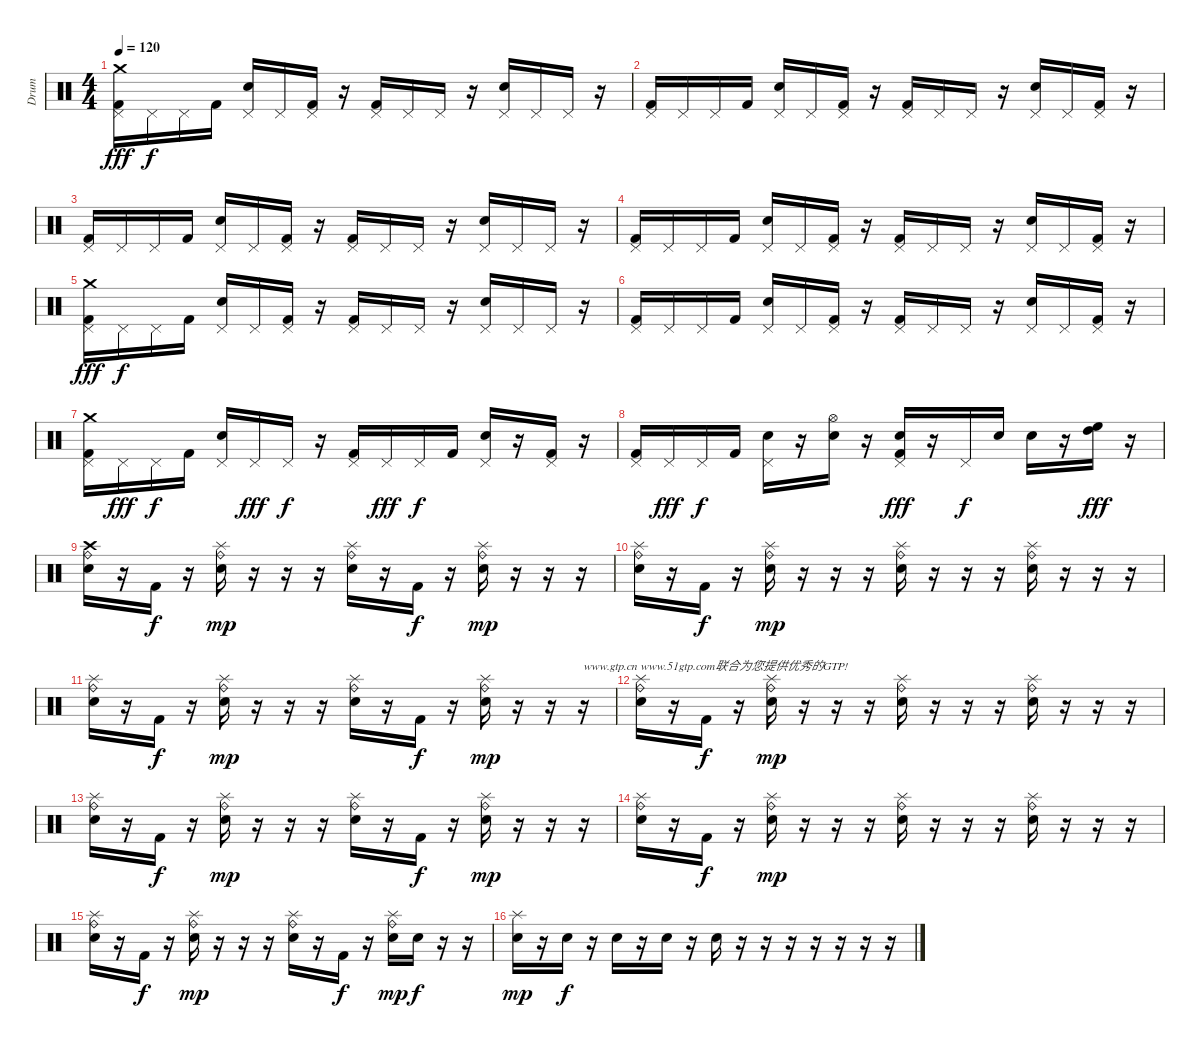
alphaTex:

\track ("Drum" "Drum") {instrument percussion}
\staff {score}
\articulation defaults
\ts (4 4)
\tempo 120
\clef neutral
\ks c
("Crash medium (hit)" "Pedal Hi-Hat (hit)" "Kick (hit) 2").16{dy fff} "Pedal Hi-Hat (hit)".16{dy f} "Pedal Hi-Hat (hit)".16 "Kick (hit) 2".16 ("Pedal Hi-Hat (hit)" "Snare (hit) 2").16 "Pedal Hi-Hat (hit)".16 ("Pedal Hi-Hat (hit)" "Kick (hit) 2").16 r.16 ("Pedal Hi-Hat (hit)" "Kick (hit) 2").16 "Pedal Hi-Hat (hit)".16 "Pedal Hi-Hat (hit)".16 r.16 ("Pedal Hi-Hat (hit)" "Snare (hit) 2").16 "Pedal Hi-Hat (hit)".16 "Pedal Hi-Hat (hit)".16 r.16 |
("Pedal Hi-Hat (hit)" "Kick (hit) 2").16 "Pedal Hi-Hat (hit)".16 "Pedal Hi-Hat (hit)".16 "Kick (hit) 2".16 ("Pedal Hi-Hat (hit)" "Snare (hit) 2").16 "Pedal Hi-Hat (hit)".16 ("Pedal Hi-Hat (hit)" "Kick (hit) 2").16 r.16 ("Pedal Hi-Hat (hit)" "Kick (hit) 2").16 "Pedal Hi-Hat (hit)".16 "Pedal Hi-Hat (hit)".16 r.16 ("Pedal Hi-Hat (hit)" "Snare (hit) 2").16 "Pedal Hi-Hat (hit)".16 ("Pedal Hi-Hat (hit)" "Kick (hit) 2").16 r.16 |
("Pedal Hi-Hat (hit)" "Kick (hit) 2").16 "Pedal Hi-Hat (hit)".16 "Pedal Hi-Hat (hit)".16 "Kick (hit) 2".16 ("Pedal Hi-Hat (hit)" "Snare (hit) 2").16 "Pedal Hi-Hat (hit)".16 ("Pedal Hi-Hat (hit)" "Kick (hit) 2").16 r.16 ("Pedal Hi-Hat (hit)" "Kick (hit) 2").16 "Pedal Hi-Hat (hit)".16 "Pedal Hi-Hat (hit)".16 r.16 ("Pedal Hi-Hat (hit)" "Snare (hit) 2").16 "Pedal Hi-Hat (hit)".16 "Pedal Hi-Hat (hit)".16 r.16 |
("Pedal Hi-Hat (hit)" "Kick (hit) 2").16 "Pedal Hi-Hat (hit)".16 "Pedal Hi-Hat (hit)".16 "Kick (hit) 2".16 ("Pedal Hi-Hat (hit)" "Snare (hit) 2").16 "Pedal Hi-Hat (hit)".16 ("Pedal Hi-Hat (hit)" "Kick (hit) 2").16 r.16 ("Pedal Hi-Hat (hit)" "Kick (hit) 2").16 "Pedal Hi-Hat (hit)".16 "Pedal Hi-Hat (hit)".16 r.16 ("Pedal Hi-Hat (hit)" "Snare (hit) 2").16 "Pedal Hi-Hat (hit)".16 ("Pedal Hi-Hat (hit)" "Kick (hit) 2").16 r.16 |
("Crash medium (hit)" "Pedal Hi-Hat (hit)" "Kick (hit) 2").16{dy fff} "Pedal Hi-Hat (hit)".16{dy f} "Pedal Hi-Hat (hit)".16 "Kick (hit) 2".16 ("Pedal Hi-Hat (hit)" "Snare (hit) 2").16 "Pedal Hi-Hat (hit)".16 ("Pedal Hi-Hat (hit)" "Kick (hit) 2").16 r.16 ("Pedal Hi-Hat (hit)" "Kick (hit) 2").16 "Pedal Hi-Hat (hit)".16 "Pedal Hi-Hat (hit)".16 r.16 ("Pedal Hi-Hat (hit)" "Snare (hit) 2").16 "Pedal Hi-Hat (hit)".16 "Pedal Hi-Hat (hit)".16 r.16 |
("Pedal Hi-Hat (hit)" "Kick (hit) 2").16 "Pedal Hi-Hat (hit)".16 "Pedal Hi-Hat (hit)".16 "Kick (hit) 2".16 ("Pedal Hi-Hat (hit)" "Snare (hit) 2").16 "Pedal Hi-Hat (hit)".16 ("Pedal Hi-Hat (hit)" "Kick (hit) 2").16 r.16 ("Pedal Hi-Hat (hit)" "Kick (hit) 2").16 "Pedal Hi-Hat (hit)".16 "Pedal Hi-Hat (hit)".16 r.16 ("Pedal Hi-Hat (hit)" "Snare (hit) 2").16 "Pedal Hi-Hat (hit)".16 ("Pedal Hi-Hat (hit)" "Kick (hit) 2").16 r.16 |
("Crash medium (hit)" "Pedal Hi-Hat (hit)" "Kick (hit) 2").16 "Pedal Hi-Hat (hit)".16{dy fff} "Pedal Hi-Hat (hit)".16{dy f} "Kick (hit) 2".16 ("Pedal Hi-Hat (hit)" "Snare (hit) 2").16 "Pedal Hi-Hat (hit)".16{dy fff} "Pedal Hi-Hat (hit)".16{dy f} r.16 ("Pedal Hi-Hat (hit)" "Kick (hit) 2").16 "Pedal Hi-Hat (hit)".16{dy fff} "Pedal Hi-Hat (hit)".16{dy f} "Kick (hit) 2".16 ("Pedal Hi-Hat (hit)" "Snare (hit) 2").16 r.16 ("Pedal Hi-Hat (hit)" "Kick (hit) 2").16 r.16 |
("Pedal Hi-Hat (hit)" "Kick (hit) 2").16 "Pedal Hi-Hat (hit)".16{dy fff} "Pedal Hi-Hat (hit)".16{dy f} "Kick (hit) 2".16 ("Pedal Hi-Hat (hit)" "Snare (hit) 2").16 r.16 ("Hi-Hat (open)" "Snare (hit) 2").16 r.16 ("Pedal Hi-Hat (hit)" "Snare (hit) 2" "Kick (hit) 2").16{dy fff} r.16 "Pedal Hi-Hat (hit)".16{dy f} "Snare (hit) 2".16 "Snare (hit) 2".16 r.16 ("High Floor Tom (hit)" "High Tom (hit)").16{dy fff} r.16 |
("Crash high (hit)" "Ride (bell)" "Snare (hit) 2").16 r.16 "Kick (hit) 2".16{dy f} r.16 ("Ride (bell)" "Splash (hit)" "Snare (hit) 2").16{dy mp} r.16 r.16 r.16 ("Ride (bell)" "Splash (hit)" "Snare (hit) 2").16 r.16 "Kick (hit) 2".16{dy f} r.16 ("Ride (bell)" "Splash (hit)" "Snare (hit) 2").16{dy mp} r.16 r.16 r.16 |
("Ride (bell)" "Splash (hit)" "Snare (hit) 2").16 r.16 "Kick (hit) 2".16{dy f} r.16 ("Ride (bell)" "Splash (hit)" "Snare (hit) 2").16{dy mp} r.16 r.16 r.16 ("Ride (bell)" "Splash (hit)" "Snare (hit) 2").16 r.16 r.16 r.16 ("Ride (bell)" "Splash (hit)" "Snare (hit) 2").16 r.16 r.16 r.16 |
("Ride (bell)" "Splash (hit)" "Snare (hit) 2").16 r.16 "Kick (hit) 2".16{dy f} r.16 ("Ride (bell)" "Splash (hit)" "Snare (hit) 2").16{dy mp} r.16 r.16 r.16 ("Ride (bell)" "Splash (hit)" "Snare (hit) 2").16 r.16 "Kick (hit) 2".16{dy f} r.16 ("Ride (bell)" "Splash (hit)" "Snare (hit) 2").16{dy mp} r.16 r.16 r.16{txt "www.gtp.cn www.51gtp.com联合为您提供优秀的GTP!"} |
("Ride (bell)" "Splash (hit)" "Snare (hit) 2").16 r.16 "Kick (hit) 2".16{dy f} r.16 ("Ride (bell)" "Splash (hit)" "Snare (hit) 2").16{dy mp} r.16 r.16 r.16 ("Ride (bell)" "Splash (hit)" "Snare (hit) 2").16 r.16 r.16 r.16 ("Ride (bell)" "Splash (hit)" "Snare (hit) 2").16 r.16 r.16 r.16 |
("Ride (bell)" "Splash (hit)" "Snare (hit) 2").16 r.16 "Kick (hit) 2".16{dy f} r.16 ("Ride (bell)" "Splash (hit)" "Snare (hit) 2").16{dy mp} r.16 r.16 r.16 ("Ride (bell)" "Splash (hit)" "Snare (hit) 2").16 r.16 "Kick (hit) 2".16{dy f} r.16 ("Ride (bell)" "Splash (hit)" "Snare (hit) 2").16{dy mp} r.16 r.16 r.16 |
("Ride (bell)" "Splash (hit)" "Snare (hit) 2").16 r.16 "Kick (hit) 2".16{dy f} r.16 ("Ride (bell)" "Splash (hit)" "Snare (hit) 2").16{dy mp} r.16 r.16 r.16 ("Ride (bell)" "Splash (hit)" "Snare (hit) 2").16 r.16 r.16 r.16 ("Ride (bell)" "Splash (hit)" "Snare (hit) 2").16 r.16 r.16 r.16 |
("Ride (bell)" "Splash (hit)" "Snare (hit) 2").16 r.16 "Kick (hit) 2".16{dy f} r.16 ("Ride (bell)" "Splash (hit)" "Snare (hit) 2").16{dy mp} r.16 r.16 r.16 ("Ride (bell)" "Splash (hit)" "Snare (hit) 2").16 r.16 "Kick (hit) 2".16{dy f} r.16 ("Ride (bell)" "Splash (hit)" "Snare (hit) 2").16{dy mp} "Snare (hit) 2".16{dy f} r.16 r.16 |
("Splash (hit)" "Snare (hit) 2").16{dy mp} r.16 "Snare (hit) 2".16{dy f} r.16 "Snare (hit) 2".16 r.16 "Snare (hit) 2".16 r.16 "Snare (hit) 2".16 r.16 r.16 r.16 r.16 r.16 r.16 r.16
